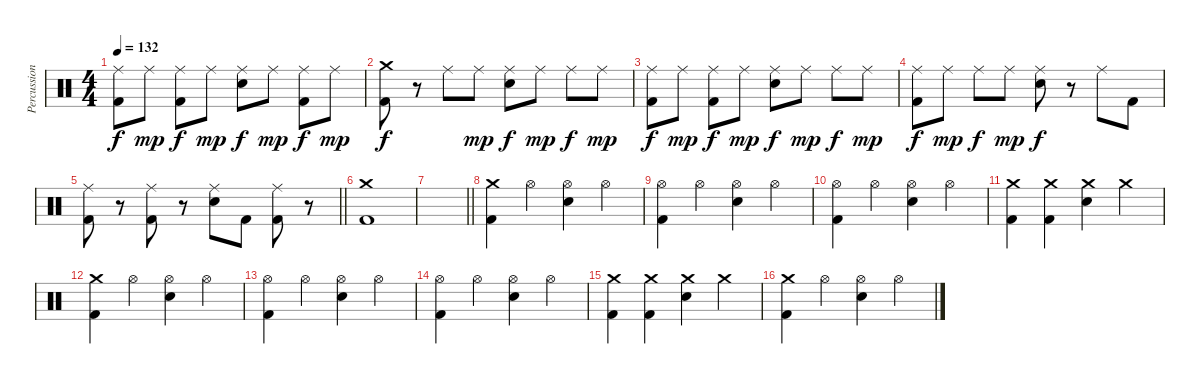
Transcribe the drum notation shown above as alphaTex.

\track ("Percussion" "Percussion") {instrument percussion}
\staff {score}
\articulation defaults
\ts (4 4)
\tempo 132
\clef neutral
\ks c
("Ride (middle)" "Kick (hit) 2").8{dy f} "Ride (middle)".8{dy mp} ("Ride (middle)" "Kick (hit) 2").8{dy f} "Ride (middle)".8{dy mp} ("Ride (middle)" "Electric Snare (hit)").8{dy f} "Ride (middle)".8{dy mp} ("Ride (middle)" "Kick (hit) 2").8{dy f} "Ride (middle)".8{dy mp} |
("Crash medium (hit)" "Kick (hit) 2").8{dy f} r.8 "Ride (middle)".8 "Ride (middle)".8{dy mp} ("Ride (middle)" "Electric Snare (hit)").8{dy f} "Ride (middle)".8{dy mp} "Ride (middle)".8{dy f} "Ride (middle)".8{dy mp} |
("Ride (middle)" "Kick (hit) 2").8{dy f} "Ride (middle)".8{dy mp} ("Ride (middle)" "Kick (hit) 2").8{dy f} "Ride (middle)".8{dy mp} ("Ride (middle)" "Electric Snare (hit)").8{dy f} "Ride (middle)".8{dy mp} "Ride (middle)".8{dy f} "Ride (middle)".8{dy mp} |
("Ride (middle)" "Kick (hit) 2").8{dy f} "Ride (middle)".8{dy mp} "Ride (middle)".8{dy f} "Ride (middle)".8{dy mp} ("Ride (middle)" "Electric Snare (hit)").8{dy f} r.8 "Ride (middle)".8 "Kick (hit) 2".8 |
\barLineRight lightlight
("Ride (middle)" "Kick (hit) 2").8 r.8 ("Ride (middle)" "Kick (hit) 2").8 r.8 ("Ride (middle)" "Electric Snare (hit)").8 "Kick (hit) 2".8 ("Ride (middle)" "Kick (hit) 2").8 r.8 |
\section ("" "")
("Crash medium (hit)" "Kick (hit) 2").1 |
\barLineRight lightlight
|
\section ("" "")
("Crash medium (hit)" "Kick (hit) 2").4 "Hi-Hat (open)".4 ("Hi-Hat (open)" "Electric Snare (hit)").4 "Hi-Hat (open)".4 |
("Hi-Hat (open)" "Kick (hit) 2").4 "Hi-Hat (open)".4 ("Hi-Hat (open)" "Electric Snare (hit)").4 "Hi-Hat (open)".4 |
("Hi-Hat (open)" "Kick (hit) 2").4 "Hi-Hat (open)".4 ("Hi-Hat (open)" "Electric Snare (hit)").4 "Hi-Hat (open)".4 |
("Crash medium (hit)" "Kick (hit) 2").4 ("Crash medium (hit)" "Kick (hit) 2").4 ("Crash medium (hit)" "Electric Snare (hit)").4 "Crash medium (hit)".4 |
("Crash medium (hit)" "Kick (hit) 2").4 "Hi-Hat (open)".4 ("Hi-Hat (open)" "Electric Snare (hit)").4 "Hi-Hat (open)".4 |
("Hi-Hat (open)" "Kick (hit) 2").4 "Hi-Hat (open)".4 ("Hi-Hat (open)" "Electric Snare (hit)").4 "Hi-Hat (open)".4 |
("Hi-Hat (open)" "Kick (hit) 2").4 "Hi-Hat (open)".4 ("Hi-Hat (open)" "Electric Snare (hit)").4 "Hi-Hat (open)".4 |
("Crash medium (hit)" "Kick (hit) 2").4 ("Crash medium (hit)" "Kick (hit) 2").4 ("Crash medium (hit)" "Electric Snare (hit)").4 "Crash medium (hit)".4 |
("Crash medium (hit)" "Kick (hit) 2").4 "Hi-Hat (open)".4 ("Hi-Hat (open)" "Electric Snare (hit)").4 "Hi-Hat (open)".4
